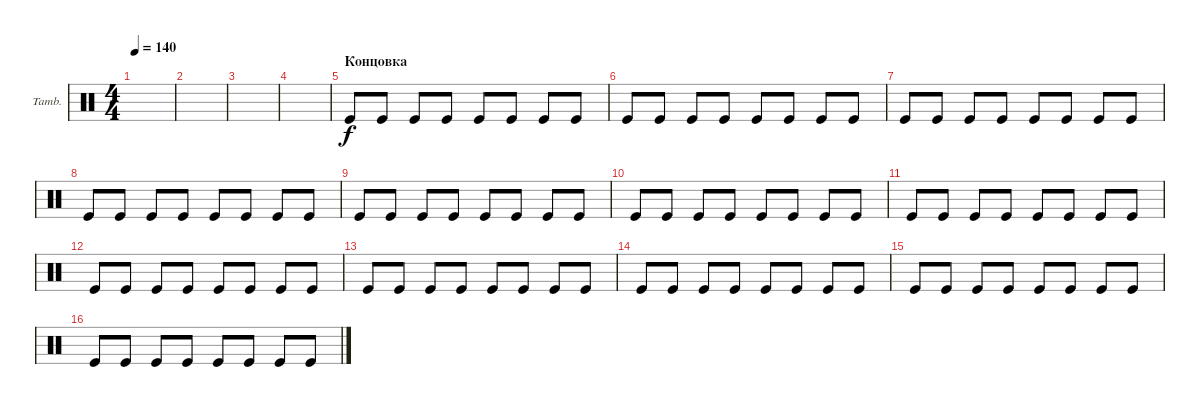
\defaultSystemsLayout 4
\bracketExtendMode groupsimilarinstruments
\firstSystemTrackNameOrientation horizontal
\otherSystemsTrackNameOrientation horizontal
\track ("Бубен" "Tamb.") {instrument percussion}
\staff {score}
\articulation defaults
\ts (4 4)
\tempo 140
\clef neutral
\scale
0.333333
\ks c
|
\scale
0.333333 |
\scale
0.333333 |
\scale
0.333333 |
\section ("" "Концовка")
\scale
0.333333 "Kick (hit)".8 "Kick (hit)".8 "Kick (hit)".8 "Kick (hit)".8 "Kick (hit)".8 "Kick (hit)".8 "Kick (hit)".8 "Kick (hit)".8 |
\scale
0.333333 "Kick (hit)".8 "Kick (hit)".8 "Kick (hit)".8 "Kick (hit)".8 "Kick (hit)".8 "Kick (hit)".8 "Kick (hit)".8 "Kick (hit)".8 |
\scale
0.333333 "Kick (hit)".8 "Kick (hit)".8 "Kick (hit)".8 "Kick (hit)".8 "Kick (hit)".8 "Kick (hit)".8 "Kick (hit)".8 "Kick (hit)".8 |
\scale
0.333333 "Kick (hit)".8 "Kick (hit)".8 "Kick (hit)".8 "Kick (hit)".8 "Kick (hit)".8 "Kick (hit)".8 "Kick (hit)".8 "Kick (hit)".8 |
\scale
0.333333 "Kick (hit)".8 "Kick (hit)".8 "Kick (hit)".8 "Kick (hit)".8 "Kick (hit)".8 "Kick (hit)".8 "Kick (hit)".8 "Kick (hit)".8 |
\scale
0.333333 "Kick (hit)".8 "Kick (hit)".8 "Kick (hit)".8 "Kick (hit)".8 "Kick (hit)".8 "Kick (hit)".8 "Kick (hit)".8 "Kick (hit)".8 |
\scale
0.333333 "Kick (hit)".8 "Kick (hit)".8 "Kick (hit)".8 "Kick (hit)".8 "Kick (hit)".8 "Kick (hit)".8 "Kick (hit)".8 "Kick (hit)".8 |
\scale
0.333333 "Kick (hit)".8 "Kick (hit)".8 "Kick (hit)".8 "Kick (hit)".8 "Kick (hit)".8 "Kick (hit)".8 "Kick (hit)".8 "Kick (hit)".8 |
\scale
0.333333 "Kick (hit)".8 "Kick (hit)".8 "Kick (hit)".8 "Kick (hit)".8 "Kick (hit)".8 "Kick (hit)".8 "Kick (hit)".8 "Kick (hit)".8 |
\scale
0.333333 "Kick (hit)".8 "Kick (hit)".8 "Kick (hit)".8 "Kick (hit)".8 "Kick (hit)".8 "Kick (hit)".8 "Kick (hit)".8 "Kick (hit)".8 |
\scale
0.333333 "Kick (hit)".8 "Kick (hit)".8 "Kick (hit)".8 "Kick (hit)".8 "Kick (hit)".8 "Kick (hit)".8 "Kick (hit)".8 "Kick (hit)".8 |
\scale
0.333333 "Kick (hit)".8 "Kick (hit)".8 "Kick (hit)".8 "Kick (hit)".8 "Kick (hit)".8 "Kick (hit)".8 "Kick (hit)".8 "Kick (hit)".8
